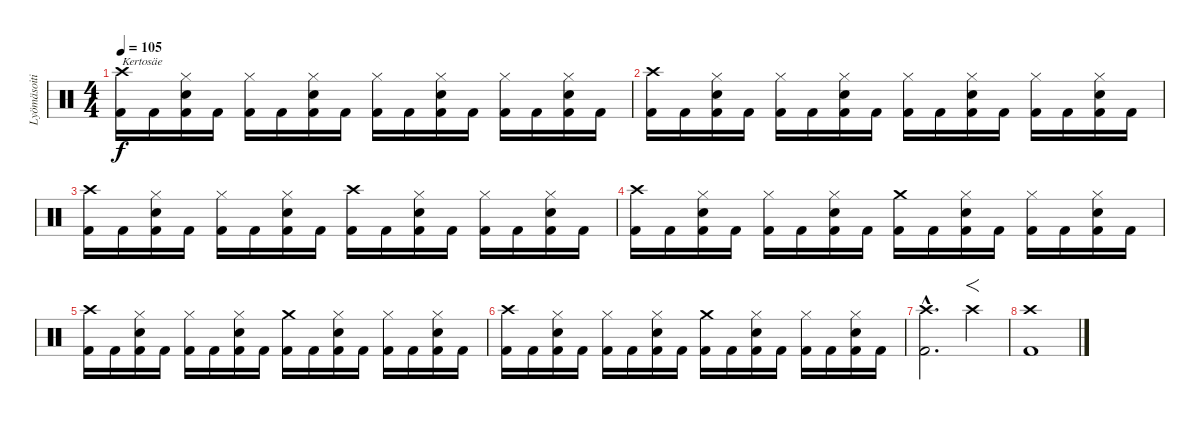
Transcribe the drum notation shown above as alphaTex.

\track ("Lyömäsoitin" "Lyömäsoiti") {instrument percussion}
\staff {score}
\articulation defaults
\ts (4 4)
\tempo 105
\clef neutral
\ks c
("Crash high (hit)" "Kick (hit) 2").16{txt "Kertosäe" dy f} "Kick (hit) 2".16 ("Hi-Hat (closed)" "Snare (hit) 2" "Kick (hit) 2").16 "Kick (hit) 2".16 ("Hi-Hat (closed)" "Kick (hit) 2").16 "Kick (hit) 2".16 ("Hi-Hat (closed)" "Snare (hit) 2" "Kick (hit) 2").16 "Kick (hit) 2".16 ("Hi-Hat (closed)" "Kick (hit) 2").16 "Kick (hit) 2".16 ("Hi-Hat (closed)" "Snare (hit) 2" "Kick (hit) 2").16 "Kick (hit) 2".16 ("Hi-Hat (closed)" "Kick (hit) 2").16 "Kick (hit) 2".16 ("Hi-Hat (closed)" "Snare (hit) 2" "Kick (hit) 2").16 "Kick (hit) 2".16 |
("Crash high (hit)" "Kick (hit) 2").16 "Kick (hit) 2".16 ("Hi-Hat (closed)" "Snare (hit) 2" "Kick (hit) 2").16 "Kick (hit) 2".16 ("Hi-Hat (closed)" "Kick (hit) 2").16 "Kick (hit) 2".16 ("Hi-Hat (closed)" "Snare (hit) 2" "Kick (hit) 2").16 "Kick (hit) 2".16 ("Hi-Hat (closed)" "Kick (hit) 2").16 "Kick (hit) 2".16 ("Hi-Hat (closed)" "Snare (hit) 2" "Kick (hit) 2").16 "Kick (hit) 2".16 ("Hi-Hat (closed)" "Kick (hit) 2").16 "Kick (hit) 2".16 ("Hi-Hat (closed)" "Snare (hit) 2" "Kick (hit) 2").16 "Kick (hit) 2".16 |
("Crash high (hit)" "Kick (hit) 2").16 "Kick (hit) 2".16 ("Hi-Hat (closed)" "Snare (hit) 2" "Kick (hit) 2").16 "Kick (hit) 2".16 ("Hi-Hat (closed)" "Kick (hit) 2").16 "Kick (hit) 2".16 ("Hi-Hat (closed)" "Snare (hit) 2" "Kick (hit) 2").16 "Kick (hit) 2".16 ("Crash high (hit)" "Kick (hit) 2").16 "Kick (hit) 2".16 ("Hi-Hat (closed)" "Snare (hit) 2" "Kick (hit) 2").16 "Kick (hit) 2".16 ("Hi-Hat (closed)" "Kick (hit) 2").16 "Kick (hit) 2".16 ("Hi-Hat (closed)" "Snare (hit) 2" "Kick (hit) 2").16 "Kick (hit) 2".16 |
("Crash high (hit)" "Kick (hit) 2").16 "Kick (hit) 2".16 ("Hi-Hat (closed)" "Snare (hit) 2" "Kick (hit) 2").16 "Kick (hit) 2".16 ("Hi-Hat (closed)" "Kick (hit) 2").16 "Kick (hit) 2".16 ("Hi-Hat (closed)" "Snare (hit) 2" "Kick (hit) 2").16 "Kick (hit) 2".16 ("Crash medium (hit)" "Kick (hit) 2").16 "Kick (hit) 2".16 ("Hi-Hat (closed)" "Snare (hit) 2" "Kick (hit) 2").16 "Kick (hit) 2".16 ("Hi-Hat (closed)" "Kick (hit) 2").16 "Kick (hit) 2".16 ("Hi-Hat (closed)" "Snare (hit) 2" "Kick (hit) 2").16 "Kick (hit) 2".16 |
("Crash high (hit)" "Kick (hit) 2").16 "Kick (hit) 2".16 ("Hi-Hat (closed)" "Snare (hit) 2" "Kick (hit) 2").16 "Kick (hit) 2".16 ("Hi-Hat (closed)" "Kick (hit) 2").16 "Kick (hit) 2".16 ("Hi-Hat (closed)" "Snare (hit) 2" "Kick (hit) 2").16 "Kick (hit) 2".16 ("Crash medium (hit)" "Kick (hit) 2").16 "Kick (hit) 2".16 ("Hi-Hat (closed)" "Snare (hit) 2" "Kick (hit) 2").16 "Kick (hit) 2".16 ("Hi-Hat (closed)" "Kick (hit) 2").16 "Kick (hit) 2".16 ("Hi-Hat (closed)" "Snare (hit) 2" "Kick (hit) 2").16 "Kick (hit) 2".16 |
("Crash high (hit)" "Kick (hit) 2").16 "Kick (hit) 2".16 ("Hi-Hat (closed)" "Snare (hit) 2" "Kick (hit) 2").16 "Kick (hit) 2".16 ("Hi-Hat (closed)" "Kick (hit) 2").16 "Kick (hit) 2".16 ("Hi-Hat (closed)" "Snare (hit) 2" "Kick (hit) 2").16 "Kick (hit) 2".16 ("Crash medium (hit)" "Kick (hit) 2").16 "Kick (hit) 2".16 ("Hi-Hat (closed)" "Snare (hit) 2" "Kick (hit) 2").16 "Kick (hit) 2".16 ("Hi-Hat (closed)" "Kick (hit) 2").16 "Kick (hit) 2".16 ("Hi-Hat (closed)" "Snare (hit) 2" "Kick (hit) 2").16 "Kick (hit) 2".16 |
("Crash high (hit)"{hac} "Kick (hit) 2"{hac}).2{d} "Crash high (hit)".4{f} |
("Crash high (hit)" "Kick (hit) 2").1
